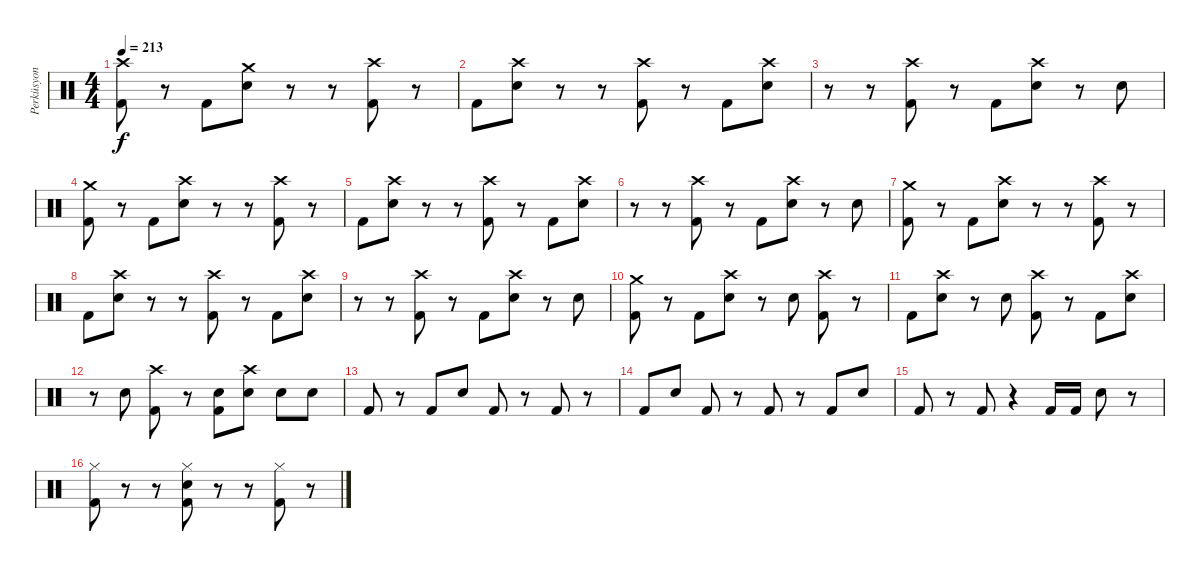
\track ("Perküsyon" "Perküsyon") {instrument percussion}
\staff {score}
\articulation defaults
\ts (4 4)
\tempo 213
\clef neutral
\ks c
("Crash high (hit)" "Kick (hit) 2").8{dy f} r.8 "Kick (hit) 2".8 ("Crash medium (hit)" "Electric Snare (hit)").8 r.8 r.8 ("Crash high (hit)" "Kick (hit) 2").8 r.8 |
"Kick (hit) 2".8 ("Crash high (hit)" "Electric Snare (hit)").8 r.8 r.8 ("Crash high (hit)" "Kick (hit) 2").8 r.8 "Kick (hit) 2".8 ("Crash high (hit)" "Electric Snare (hit)").8 |
r.8 r.8 ("Crash high (hit)" "Kick (hit) 2").8 r.8 "Kick (hit) 2".8 ("Crash high (hit)" "Electric Snare (hit)").8 r.8 "Electric Snare (hit)".8 |
("Crash medium (hit)" "Kick (hit) 2").8 r.8 "Kick (hit) 2".8 ("Crash high (hit)" "Electric Snare (hit)").8 r.8 r.8 ("Crash high (hit)" "Kick (hit) 2").8 r.8 |
"Kick (hit) 2".8 ("Crash high (hit)" "Electric Snare (hit)").8 r.8 r.8 ("Crash high (hit)" "Kick (hit) 2").8 r.8 "Kick (hit) 2".8 ("Crash high (hit)" "Electric Snare (hit)").8 |
r.8 r.8 ("Crash high (hit)" "Kick (hit) 2").8 r.8 "Kick (hit) 2".8 ("Crash high (hit)" "Electric Snare (hit)").8 r.8 "Electric Snare (hit)".8 |
("Crash medium (hit)" "Kick (hit) 2").8 r.8 "Kick (hit) 2".8 ("Crash high (hit)" "Electric Snare (hit)").8 r.8 r.8 ("Crash high (hit)" "Kick (hit) 2").8 r.8 |
"Kick (hit) 2".8 ("Crash high (hit)" "Electric Snare (hit)").8 r.8 r.8 ("Crash high (hit)" "Kick (hit) 2").8 r.8 "Kick (hit) 2".8 ("Crash high (hit)" "Electric Snare (hit)").8 |
r.8 r.8 ("Crash high (hit)" "Kick (hit) 2").8 r.8 "Kick (hit) 2".8 ("Crash high (hit)" "Electric Snare (hit)").8 r.8 "Electric Snare (hit)".8 |
("Crash medium (hit)" "Kick (hit) 2").8 r.8 "Kick (hit) 2".8 ("Crash high (hit)" "Electric Snare (hit)").8 r.8 "Electric Snare (hit)".8 ("Crash high (hit)" "Kick (hit) 2").8 r.8 |
"Kick (hit) 2".8 ("Crash high (hit)" "Electric Snare (hit)").8 r.8 "Electric Snare (hit)".8 ("Crash high (hit)" "Kick (hit) 2").8 r.8 "Kick (hit) 2".8 ("Crash high (hit)" "Electric Snare (hit)").8 |
r.8 "Electric Snare (hit)".8 ("Crash high (hit)" "Kick (hit) 2").8 r.8 ("Electric Snare (hit)" "Kick (hit) 2").8 ("Crash high (hit)" "Electric Snare (hit)").8 "Electric Snare (hit)".8 "Electric Snare (hit)".8 |
"Kick (hit) 2".8 r.8 "Kick (hit) 2".8 "Electric Snare (hit)".8 "Kick (hit) 2".8 r.8 "Kick (hit) 2".8 r.8 |
"Kick (hit) 2".8 "Electric Snare (hit)".8 "Kick (hit) 2".8 r.8 "Kick (hit) 2".8 r.8 "Kick (hit) 2".8 "Electric Snare (hit)".8 |
"Kick (hit) 2".8 r.8 "Kick (hit) 2".8 r.4 "Kick (hit) 2".16 "Kick (hit) 2".16 "Electric Snare (hit)".8 r.8 |
("Hi-Hat (closed)" "Kick (hit) 2").8 r.8 r.8 ("Hi-Hat (closed)" "Electric Snare (hit)" "Kick (hit) 2").8 r.8 r.8 ("Hi-Hat (closed)" "Kick (hit) 2").8 r.8
